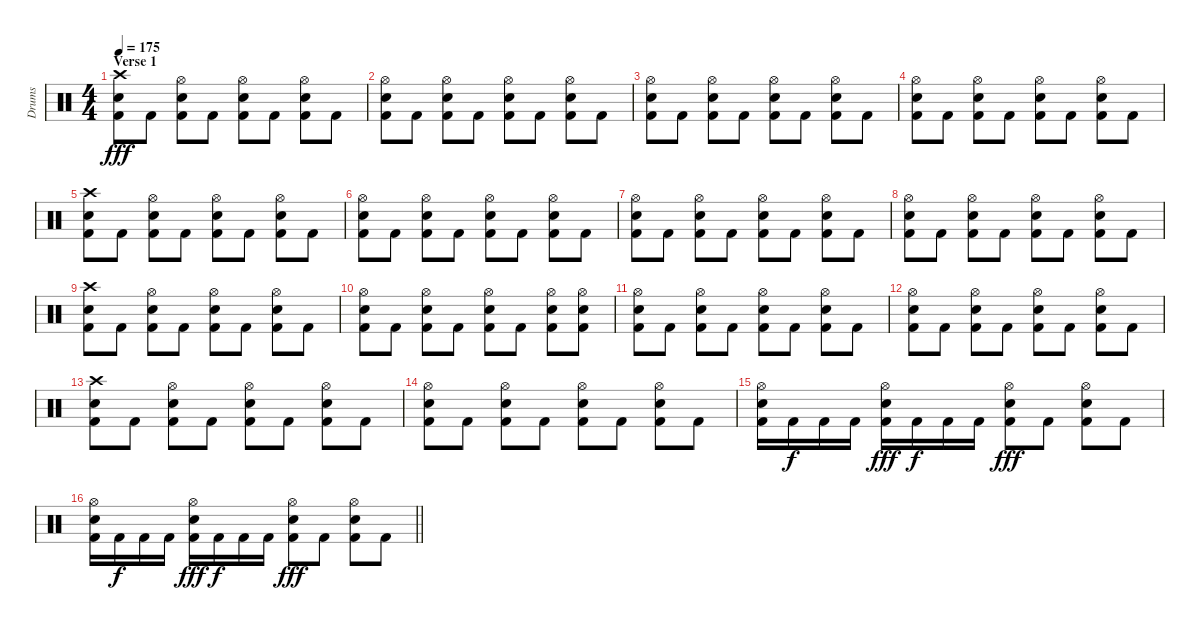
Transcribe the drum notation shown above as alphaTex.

\track ("Drums" "Drums") {instrument percussion}
\staff {score}
\articulation defaults
\ts (4 4)
\section ("" "Verse 1")
\tempo 175
\clef neutral
\ks c
("Crash high (hit)" "Electric Snare (hit)" "Kick (hit) 2").8{dy fff} "Kick (hit) 2".8 ("Hi-Hat (open)" "Electric Snare (hit)" "Kick (hit) 2").8 "Kick (hit) 2".8 ("Hi-Hat (open)" "Electric Snare (hit)" "Kick (hit) 2").8 "Kick (hit) 2".8 ("Hi-Hat (open)" "Electric Snare (hit)" "Kick (hit) 2").8 "Kick (hit) 2".8 |
("Hi-Hat (open)" "Electric Snare (hit)" "Kick (hit) 2").8 "Kick (hit) 2".8 ("Hi-Hat (open)" "Electric Snare (hit)" "Kick (hit) 2").8 "Kick (hit) 2".8 ("Hi-Hat (open)" "Electric Snare (hit)" "Kick (hit) 2").8 "Kick (hit) 2".8 ("Hi-Hat (open)" "Electric Snare (hit)" "Kick (hit) 2").8 "Kick (hit) 2".8 |
("Hi-Hat (open)" "Electric Snare (hit)" "Kick (hit) 2").8 "Kick (hit) 2".8 ("Hi-Hat (open)" "Electric Snare (hit)" "Kick (hit) 2").8 "Kick (hit) 2".8 ("Hi-Hat (open)" "Electric Snare (hit)" "Kick (hit) 2").8 "Kick (hit) 2".8 ("Hi-Hat (open)" "Electric Snare (hit)" "Kick (hit) 2").8 "Kick (hit) 2".8 |
("Hi-Hat (open)" "Electric Snare (hit)" "Kick (hit) 2").8 "Kick (hit) 2".8 ("Hi-Hat (open)" "Electric Snare (hit)" "Kick (hit) 2").8 "Kick (hit) 2".8 ("Hi-Hat (open)" "Electric Snare (hit)" "Kick (hit) 2").8 "Kick (hit) 2".8 ("Hi-Hat (open)" "Electric Snare (hit)" "Kick (hit) 2").8 "Kick (hit) 2".8 |
("Crash high (hit)" "Electric Snare (hit)" "Kick (hit) 2").8 "Kick (hit) 2".8 ("Hi-Hat (open)" "Electric Snare (hit)" "Kick (hit) 2").8 "Kick (hit) 2".8 ("Hi-Hat (open)" "Electric Snare (hit)" "Kick (hit) 2").8 "Kick (hit) 2".8 ("Hi-Hat (open)" "Electric Snare (hit)" "Kick (hit) 2").8 "Kick (hit) 2".8 |
("Hi-Hat (open)" "Electric Snare (hit)" "Kick (hit) 2").8 "Kick (hit) 2".8 ("Hi-Hat (open)" "Electric Snare (hit)" "Kick (hit) 2").8 "Kick (hit) 2".8 ("Hi-Hat (open)" "Electric Snare (hit)" "Kick (hit) 2").8 "Kick (hit) 2".8 ("Hi-Hat (open)" "Electric Snare (hit)" "Kick (hit) 2").8 "Kick (hit) 2".8 |
("Hi-Hat (open)" "Electric Snare (hit)" "Kick (hit) 2").8 "Kick (hit) 2".8 ("Hi-Hat (open)" "Electric Snare (hit)" "Kick (hit) 2").8 "Kick (hit) 2".8 ("Hi-Hat (open)" "Electric Snare (hit)" "Kick (hit) 2").8 "Kick (hit) 2".8 ("Hi-Hat (open)" "Electric Snare (hit)" "Kick (hit) 2").8 "Kick (hit) 2".8 |
("Hi-Hat (open)" "Electric Snare (hit)" "Kick (hit) 2").8 "Kick (hit) 2".8 ("Hi-Hat (open)" "Electric Snare (hit)" "Kick (hit) 2").8 "Kick (hit) 2".8 ("Hi-Hat (open)" "Electric Snare (hit)" "Kick (hit) 2").8 "Kick (hit) 2".8 ("Hi-Hat (open)" "Electric Snare (hit)" "Kick (hit) 2").8 "Kick (hit) 2".8 |
("Crash high (hit)" "Electric Snare (hit)" "Kick (hit) 2").8 "Kick (hit) 2".8 ("Hi-Hat (open)" "Electric Snare (hit)" "Kick (hit) 2").8 "Kick (hit) 2".8 ("Hi-Hat (open)" "Electric Snare (hit)" "Kick (hit) 2").8 "Kick (hit) 2".8 ("Hi-Hat (open)" "Electric Snare (hit)" "Kick (hit) 2").8 "Kick (hit) 2".8 |
("Hi-Hat (open)" "Electric Snare (hit)" "Kick (hit) 2").8 "Kick (hit) 2".8 ("Hi-Hat (open)" "Electric Snare (hit)" "Kick (hit) 2").8 "Kick (hit) 2".8 ("Hi-Hat (open)" "Electric Snare (hit)" "Kick (hit) 2").8 "Kick (hit) 2".8 ("Hi-Hat (open)" "Electric Snare (hit)" "Kick (hit) 2").8 ("Hi-Hat (open)" "Electric Snare (hit)" "Kick (hit) 2").8 |
("Hi-Hat (open)" "Electric Snare (hit)" "Kick (hit) 2").8 "Kick (hit) 2".8 ("Hi-Hat (open)" "Electric Snare (hit)" "Kick (hit) 2").8 "Kick (hit) 2".8 ("Hi-Hat (open)" "Electric Snare (hit)" "Kick (hit) 2").8 "Kick (hit) 2".8 ("Hi-Hat (open)" "Electric Snare (hit)" "Kick (hit) 2").8 "Kick (hit) 2".8 |
("Hi-Hat (open)" "Electric Snare (hit)" "Kick (hit) 2").8 "Kick (hit) 2".8 ("Hi-Hat (open)" "Electric Snare (hit)" "Kick (hit) 2").8 "Kick (hit) 2".8 ("Hi-Hat (open)" "Electric Snare (hit)" "Kick (hit) 2").8 "Kick (hit) 2".8 ("Hi-Hat (open)" "Electric Snare (hit)" "Kick (hit) 2").8 "Kick (hit) 2".8 |
("Crash high (hit)" "Electric Snare (hit)" "Kick (hit) 2").8 "Kick (hit) 2".8 ("Hi-Hat (open)" "Electric Snare (hit)" "Kick (hit) 2").8 "Kick (hit) 2".8 ("Hi-Hat (open)" "Electric Snare (hit)" "Kick (hit) 2").8 "Kick (hit) 2".8 ("Hi-Hat (open)" "Electric Snare (hit)" "Kick (hit) 2").8 "Kick (hit) 2".8 |
("Hi-Hat (open)" "Electric Snare (hit)" "Kick (hit) 2").8 "Kick (hit) 2".8 ("Hi-Hat (open)" "Electric Snare (hit)" "Kick (hit) 2").8 "Kick (hit) 2".8 ("Hi-Hat (open)" "Electric Snare (hit)" "Kick (hit) 2").8 "Kick (hit) 2".8 ("Hi-Hat (open)" "Electric Snare (hit)" "Kick (hit) 2").8 "Kick (hit) 2".8 |
("Hi-Hat (open)" "Electric Snare (hit)" "Kick (hit) 2").16 "Kick (hit) 2".16{dy f} "Kick (hit) 2".16 "Kick (hit) 2".16 ("Hi-Hat (open)" "Electric Snare (hit)" "Kick (hit) 2").16{dy fff} "Kick (hit) 2".16{dy f} "Kick (hit) 2".16 "Kick (hit) 2".16 ("Hi-Hat (open)" "Electric Snare (hit)" "Kick (hit) 2").8{dy fff} "Kick (hit) 2".8 ("Hi-Hat (open)" "Electric Snare (hit)" "Kick (hit) 2").8 "Kick (hit) 2".8 |
\barLineRight lightlight
("Hi-Hat (open)" "Electric Snare (hit)" "Kick (hit) 2").16 "Kick (hit) 2".16{dy f} "Kick (hit) 2".16 "Kick (hit) 2".16 ("Hi-Hat (open)" "Electric Snare (hit)" "Kick (hit) 2").16{dy fff} "Kick (hit) 2".16{dy f} "Kick (hit) 2".16 "Kick (hit) 2".16 ("Hi-Hat (open)" "Electric Snare (hit)" "Kick (hit) 2").8{dy fff} "Kick (hit) 2".8 ("Hi-Hat (open)" "Electric Snare (hit)" "Kick (hit) 2").8 "Kick (hit) 2".8
